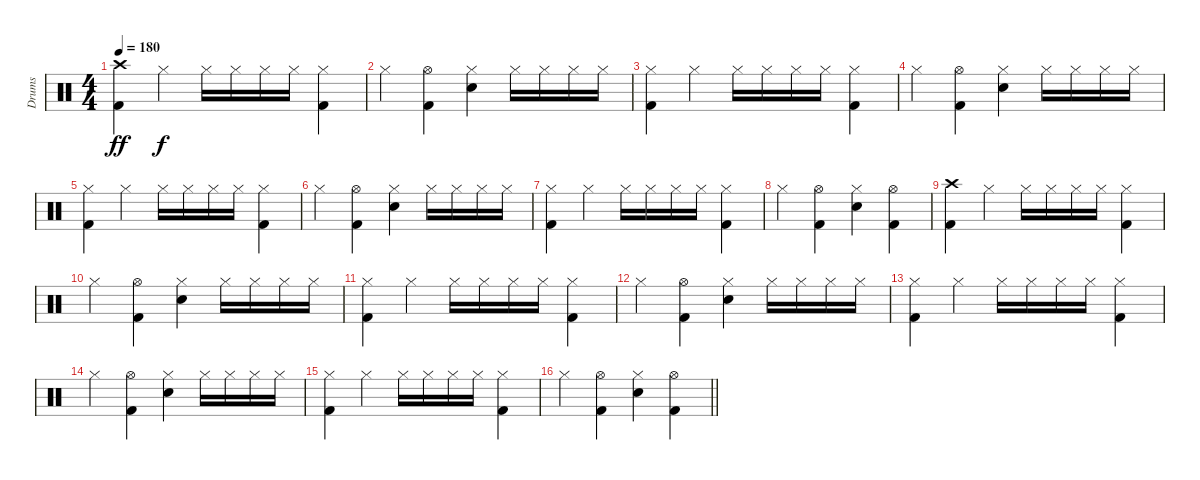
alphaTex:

\track ("Drums" "Drums") {instrument percussion}
\staff {score}
\articulation defaults
\ts (4 4)
\section ("" "")
\tempo 180
\clef neutral
\ks c
("Crash high (hit)" "Kick (hit) 2").4{dy ff} "Hi-Hat (closed)".4{dy f} "Hi-Hat (closed)".16 "Hi-Hat (closed)".16 "Hi-Hat (closed)".16 "Hi-Hat (closed)".16 ("Hi-Hat (closed)" "Kick (hit) 2").4 |
"Hi-Hat (closed)".4 ("Hi-Hat (open)" "Kick (hit) 2").4 ("Hi-Hat (closed)" "Electric Snare (hit)").4 "Hi-Hat (closed)".16 "Hi-Hat (closed)".16 "Hi-Hat (closed)".16 "Hi-Hat (closed)".16 |
("Hi-Hat (closed)" "Kick (hit) 2").4 "Hi-Hat (closed)".4 "Hi-Hat (closed)".16 "Hi-Hat (closed)".16 "Hi-Hat (closed)".16 "Hi-Hat (closed)".16 ("Hi-Hat (closed)" "Kick (hit) 2").4 |
"Hi-Hat (closed)".4 ("Hi-Hat (open)" "Kick (hit) 2").4 ("Hi-Hat (closed)" "Electric Snare (hit)").4 "Hi-Hat (closed)".16 "Hi-Hat (closed)".16 "Hi-Hat (closed)".16 "Hi-Hat (closed)".16 |
("Hi-Hat (closed)" "Kick (hit) 2").4 "Hi-Hat (closed)".4 "Hi-Hat (closed)".16 "Hi-Hat (closed)".16 "Hi-Hat (closed)".16 "Hi-Hat (closed)".16 ("Hi-Hat (closed)" "Kick (hit) 2").4 |
"Hi-Hat (closed)".4 ("Hi-Hat (open)" "Kick (hit) 2").4 ("Hi-Hat (closed)" "Electric Snare (hit)").4 "Hi-Hat (closed)".16 "Hi-Hat (closed)".16 "Hi-Hat (closed)".16 "Hi-Hat (closed)".16 |
("Hi-Hat (closed)" "Kick (hit) 2").4 "Hi-Hat (closed)".4 "Hi-Hat (closed)".16 "Hi-Hat (closed)".16 "Hi-Hat (closed)".16 "Hi-Hat (closed)".16 ("Hi-Hat (closed)" "Kick (hit) 2").4 |
"Hi-Hat (closed)".4 ("Hi-Hat (open)" "Kick (hit) 2").4 ("Hi-Hat (closed)" "Electric Snare (hit)").4 ("Hi-Hat (open)" "Kick (hit) 2").4 |
("Crash high (hit)" "Kick (hit) 2").4 "Hi-Hat (closed)".4 "Hi-Hat (closed)".16 "Hi-Hat (closed)".16 "Hi-Hat (closed)".16 "Hi-Hat (closed)".16 ("Hi-Hat (closed)" "Kick (hit) 2").4 |
"Hi-Hat (closed)".4 ("Hi-Hat (open)" "Kick (hit) 2").4 ("Hi-Hat (closed)" "Electric Snare (hit)").4 "Hi-Hat (closed)".16 "Hi-Hat (closed)".16 "Hi-Hat (closed)".16 "Hi-Hat (closed)".16 |
("Hi-Hat (closed)" "Kick (hit) 2").4 "Hi-Hat (closed)".4 "Hi-Hat (closed)".16 "Hi-Hat (closed)".16 "Hi-Hat (closed)".16 "Hi-Hat (closed)".16 ("Hi-Hat (closed)" "Kick (hit) 2").4 |
"Hi-Hat (closed)".4 ("Hi-Hat (open)" "Kick (hit) 2").4 ("Hi-Hat (closed)" "Electric Snare (hit)").4 "Hi-Hat (closed)".16 "Hi-Hat (closed)".16 "Hi-Hat (closed)".16 "Hi-Hat (closed)".16 |
("Hi-Hat (closed)" "Kick (hit) 2").4 "Hi-Hat (closed)".4 "Hi-Hat (closed)".16 "Hi-Hat (closed)".16 "Hi-Hat (closed)".16 "Hi-Hat (closed)".16 ("Hi-Hat (closed)" "Kick (hit) 2").4 |
"Hi-Hat (closed)".4 ("Hi-Hat (open)" "Kick (hit) 2").4 ("Hi-Hat (closed)" "Electric Snare (hit)").4 "Hi-Hat (closed)".16 "Hi-Hat (closed)".16 "Hi-Hat (closed)".16 "Hi-Hat (closed)".16 |
("Hi-Hat (closed)" "Kick (hit) 2").4 "Hi-Hat (closed)".4 "Hi-Hat (closed)".16 "Hi-Hat (closed)".16 "Hi-Hat (closed)".16 "Hi-Hat (closed)".16 ("Hi-Hat (closed)" "Kick (hit) 2").4 |
\barLineRight lightlight "Hi-Hat (closed)".4
("Hi-Hat (open)" "Kick (hit) 2").4 ("Hi-Hat (closed)" "Electric Snare (hit)").4 ("Hi-Hat (open)" "Kick (hit) 2").4
